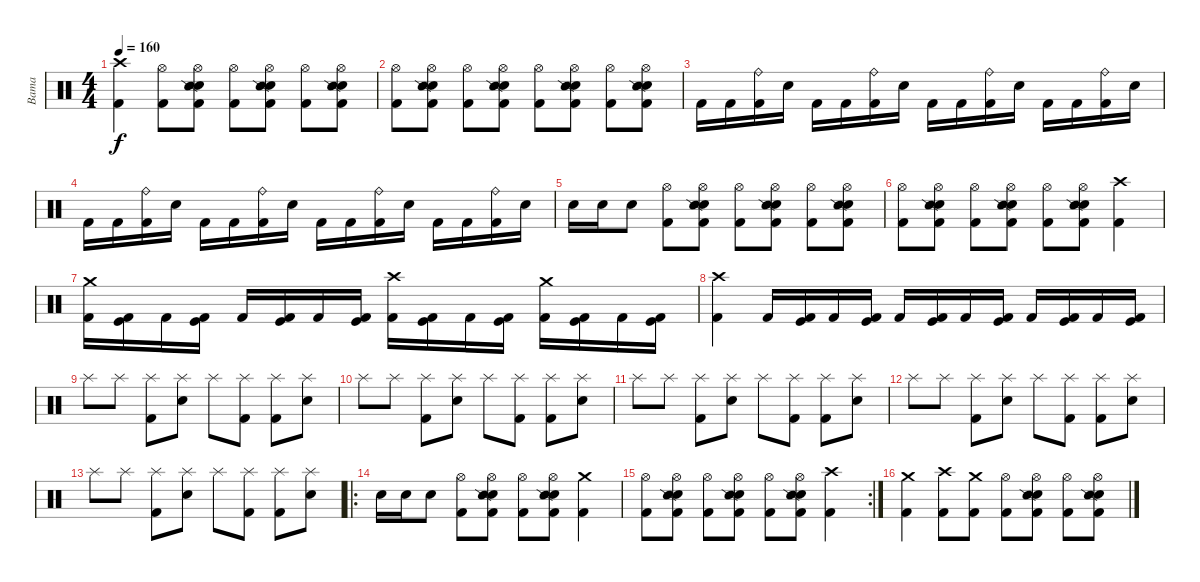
\track ("Bama" "Bama") {instrument percussion}
\staff {score}
\articulation defaults
\ts (4 4)
\tempo 160
\clef neutral
\ks c
("Crash high (hit)" "Kick (hit) 2").4{dy f} ("Hi-Hat (open)" "Kick (hit) 2").8 ("Hi-Hat (open)" "Electric Snare (hit)" "Snare (side stick) 2" "Kick (hit) 2").8 ("Hi-Hat (open)" "Kick (hit) 2").8 ("Hi-Hat (open)" "Electric Snare (hit)" "Snare (side stick) 2" "Kick (hit) 2").8 ("Hi-Hat (open)" "Kick (hit) 2").8 ("Hi-Hat (open)" "Electric Snare (hit)" "Snare (side stick) 2" "Kick (hit) 2").8 |
("Hi-Hat (open)" "Kick (hit) 2").8 ("Hi-Hat (open)" "Electric Snare (hit)" "Snare (side stick) 2" "Kick (hit) 2").8 ("Hi-Hat (open)" "Kick (hit) 2").8 ("Hi-Hat (open)" "Electric Snare (hit)" "Snare (side stick) 2" "Kick (hit) 2").8 ("Hi-Hat (open)" "Kick (hit) 2").8 ("Hi-Hat (open)" "Electric Snare (hit)" "Snare (side stick) 2" "Kick (hit) 2").8 ("Hi-Hat (open)" "Kick (hit) 2").8 ("Hi-Hat (open)" "Electric Snare (hit)" "Snare (side stick) 2" "Kick (hit) 2").8 |
"Kick (hit) 2".16 "Kick (hit) 2".16 ("Ride (bell)" "Kick (hit) 2").16 "Electric Snare (hit)".16 "Kick (hit) 2".16 "Kick (hit) 2".16 ("Ride (bell)" "Kick (hit) 2").16 "Electric Snare (hit)".16 "Kick (hit) 2".16 "Kick (hit) 2".16 ("Ride (bell)" "Kick (hit) 2").16 "Electric Snare (hit)".16 "Kick (hit) 2".16 "Kick (hit) 2".16 ("Ride (bell)" "Kick (hit) 2").16 "Electric Snare (hit)".16 |
"Kick (hit) 2".16 "Kick (hit) 2".16 ("Ride (bell)" "Kick (hit) 2").16 "Electric Snare (hit)".16 "Kick (hit) 2".16 "Kick (hit) 2".16 ("Ride (bell)" "Kick (hit) 2").16 "Electric Snare (hit)".16 "Kick (hit) 2".16 "Kick (hit) 2".16 ("Ride (bell)" "Kick (hit) 2").16 "Electric Snare (hit)".16 "Kick (hit) 2".16 "Kick (hit) 2".16 ("Ride (bell)" "Kick (hit) 2").16 "Electric Snare (hit)".16 |
"Electric Snare (hit)".16 "Electric Snare (hit)".16 "Electric Snare (hit)".8 ("Hi-Hat (open)" "Kick (hit) 2").8 ("Hi-Hat (open)" "Electric Snare (hit)" "Snare (side stick) 2" "Kick (hit) 2").8 ("Hi-Hat (open)" "Kick (hit) 2").8 ("Hi-Hat (open)" "Electric Snare (hit)" "Snare (side stick) 2" "Kick (hit) 2").8 ("Hi-Hat (open)" "Kick (hit) 2").8 ("Hi-Hat (open)" "Electric Snare (hit)" "Snare (side stick) 2" "Kick (hit) 2").8 |
("Hi-Hat (open)" "Kick (hit) 2").8 ("Hi-Hat (open)" "Electric Snare (hit)" "Snare (side stick) 2" "Kick (hit) 2").8 ("Hi-Hat (open)" "Kick (hit) 2").8 ("Hi-Hat (open)" "Electric Snare (hit)" "Snare (side stick) 2" "Kick (hit) 2").8 ("Hi-Hat (open)" "Kick (hit) 2").8 ("Hi-Hat (open)" "Electric Snare (hit)" "Snare (side stick) 2" "Kick (hit) 2").8 ("Crash high (hit)" "Kick (hit) 2").4 |
("Crash medium (hit)" "Kick (hit) 2").16 ("Kick (hit)" "Kick (hit) 2").16 "Kick (hit) 2".16 ("Kick (hit)" "Kick (hit) 2").16 "Kick (hit) 2".16 ("Kick (hit)" "Kick (hit) 2").16 "Kick (hit) 2".16 ("Kick (hit)" "Kick (hit) 2").16 ("Crash high (hit)" "Kick (hit) 2").16 ("Kick (hit)" "Kick (hit) 2").16 "Kick (hit) 2".16 ("Kick (hit)" "Kick (hit) 2").16 ("Crash medium (hit)" "Kick (hit) 2").16 ("Kick (hit)" "Kick (hit) 2").16 "Kick (hit) 2".16 ("Kick (hit)" "Kick (hit) 2").16 |
("Crash high (hit)" "Kick (hit) 2").4 "Kick (hit) 2".16 ("Kick (hit)" "Kick (hit) 2").16 "Kick (hit) 2".16 ("Kick (hit)" "Kick (hit) 2").16 "Kick (hit) 2".16 ("Kick (hit)" "Kick (hit) 2").16 "Kick (hit) 2".16 ("Kick (hit)" "Kick (hit) 2").16 "Kick (hit) 2".16 ("Kick (hit)" "Kick (hit) 2").16 "Kick (hit) 2".16 ("Kick (hit)" "Kick (hit) 2").16 |
"Splash (hit)".8 "Splash (hit)".8 ("Splash (hit)" "Kick (hit) 2").8 ("Splash (hit)" "Electric Snare (hit)").8 "Splash (hit)".8 ("Splash (hit)" "Kick (hit) 2").8 ("Splash (hit)" "Kick (hit) 2").8 ("Splash (hit)" "Electric Snare (hit)").8 |
"Splash (hit)".8 "Splash (hit)".8 ("Splash (hit)" "Kick (hit) 2").8 ("Splash (hit)" "Electric Snare (hit)").8 "Splash (hit)".8 ("Splash (hit)" "Kick (hit) 2").8 ("Splash (hit)" "Kick (hit) 2").8 ("Splash (hit)" "Electric Snare (hit)").8 |
"Splash (hit)".8 "Splash (hit)".8 ("Splash (hit)" "Kick (hit) 2").8 ("Splash (hit)" "Electric Snare (hit)").8 "Splash (hit)".8 ("Splash (hit)" "Kick (hit) 2").8 ("Splash (hit)" "Kick (hit) 2").8 ("Splash (hit)" "Electric Snare (hit)").8 |
"Splash (hit)".8 "Splash (hit)".8 ("Splash (hit)" "Kick (hit) 2").8 ("Splash (hit)" "Electric Snare (hit)").8 "Splash (hit)".8 ("Splash (hit)" "Kick (hit) 2").8 ("Splash (hit)" "Kick (hit) 2").8 ("Splash (hit)" "Electric Snare (hit)").8 |
"Splash (hit)".8 "Splash (hit)".8 ("Splash (hit)" "Kick (hit) 2").8 ("Splash (hit)" "Electric Snare (hit)").8 "Splash (hit)".8 ("Splash (hit)" "Kick (hit) 2").8 ("Splash (hit)" "Kick (hit) 2").8 ("Splash (hit)" "Electric Snare (hit)").8 |
\ro "Electric Snare (hit)".16 "Electric Snare (hit)".16 "Electric Snare (hit)".8
("Hi-Hat (open)" "Kick (hit) 2").8 ("Hi-Hat (open)" "Electric Snare (hit)" "Snare (side stick) 2" "Kick (hit) 2").8 ("Hi-Hat (open)" "Kick (hit) 2").8 ("Hi-Hat (open)" "Electric Snare (hit)" "Snare (side stick) 2" "Kick (hit) 2").8 ("Crash medium (hit)" "Kick (hit) 2").4 |
\rc 2
("Hi-Hat (open)" "Kick (hit) 2").8 ("Hi-Hat (open)" "Electric Snare (hit)" "Snare (side stick) 2" "Kick (hit) 2").8 ("Hi-Hat (open)" "Kick (hit) 2").8 ("Hi-Hat (open)" "Electric Snare (hit)" "Snare (side stick) 2" "Kick (hit) 2").8 ("Hi-Hat (open)" "Kick (hit) 2").8 ("Hi-Hat (open)" "Electric Snare (hit)" "Snare (side stick) 2" "Kick (hit) 2").8 ("Crash high (hit)" "Kick (hit) 2").4 |
("Crash medium (hit)" "Kick (hit) 2").4 ("Crash high (hit)" "Kick (hit) 2").8 ("Crash medium (hit)" "Kick (hit) 2").8 ("Hi-Hat (open)" "Kick (hit) 2").8 ("Hi-Hat (open)" "Electric Snare (hit)" "Snare (side stick) 2" "Kick (hit) 2").8 ("Hi-Hat (open)" "Kick (hit) 2").8 ("Hi-Hat (open)" "Electric Snare (hit)" "Snare (side stick) 2" "Kick (hit) 2").8
